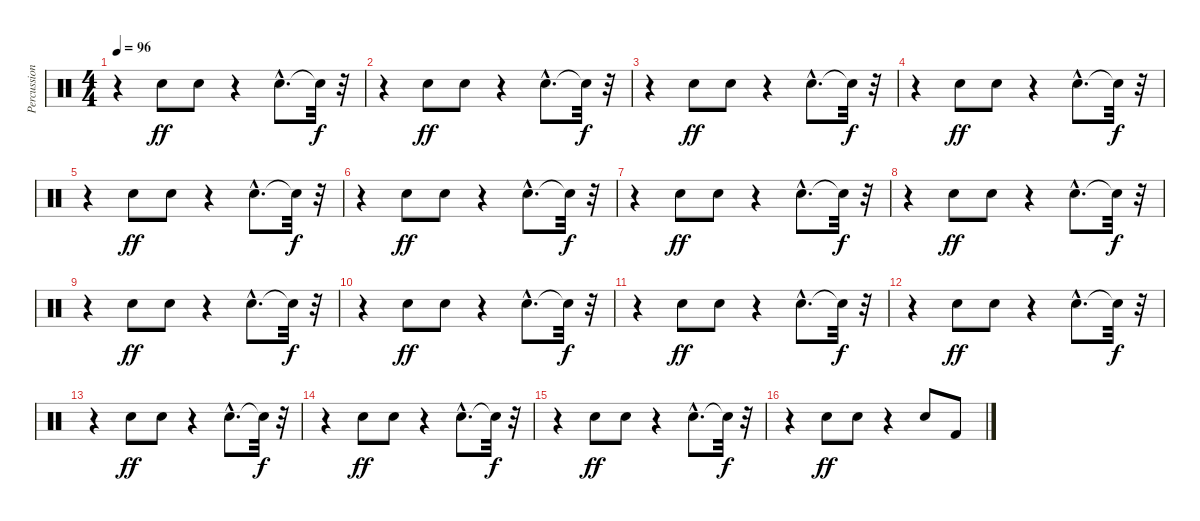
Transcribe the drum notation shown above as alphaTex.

\track ("Percussion 1" "Percussion") {instrument percussion}
\staff {score}
\articulation defaults
\ts (4 4)
\tempo 96
\clef neutral
\ks c
r.4{dy ff} "Electric Snare (hit)".8 "Electric Snare (hit)".8 r.4 "Electric Snare (hit)"{hac}.8{d} "Snare (hit)"{t}.32{dy f} r.32 |
r.4 "Electric Snare (hit)".8{dy ff} "Electric Snare (hit)".8 r.4 "Electric Snare (hit)"{hac}.8{d} "Snare (hit)"{t}.32{dy f} r.32 |
r.4 "Electric Snare (hit)".8{dy ff} "Electric Snare (hit)".8 r.4 "Electric Snare (hit)"{hac}.8{d} "Snare (hit)"{t}.32{dy f} r.32 |
r.4 "Electric Snare (hit)".8{dy ff} "Electric Snare (hit)".8 r.4 "Electric Snare (hit)"{hac}.8{d} "Snare (hit)"{t}.32{dy f} r.32 |
r.4 "Electric Snare (hit)".8{dy ff} "Electric Snare (hit)".8 r.4 "Electric Snare (hit)"{hac}.8{d} "Snare (hit)"{t}.32{dy f} r.32 |
r.4 "Electric Snare (hit)".8{dy ff} "Electric Snare (hit)".8 r.4 "Electric Snare (hit)"{hac}.8{d} "Snare (hit)"{t}.32{dy f} r.32 |
r.4 "Electric Snare (hit)".8{dy ff} "Electric Snare (hit)".8 r.4 "Electric Snare (hit)"{hac}.8{d} "Snare (hit)"{t}.32{dy f} r.32 |
r.4 "Electric Snare (hit)".8{dy ff} "Electric Snare (hit)".8 r.4 "Electric Snare (hit)"{hac}.8{d} "Snare (hit)"{t}.32{dy f} r.32 |
r.4 "Electric Snare (hit)".8{dy ff} "Electric Snare (hit)".8 r.4 "Electric Snare (hit)"{hac}.8{d} "Snare (hit)"{t}.32{dy f} r.32 |
r.4 "Electric Snare (hit)".8{dy ff} "Electric Snare (hit)".8 r.4 "Electric Snare (hit)"{hac}.8{d} "Snare (hit)"{t}.32{dy f} r.32 |
r.4 "Electric Snare (hit)".8{dy ff} "Electric Snare (hit)".8 r.4 "Electric Snare (hit)"{hac}.8{d} "Snare (hit)"{t}.32{dy f} r.32 |
r.4 "Electric Snare (hit)".8{dy ff} "Electric Snare (hit)".8 r.4 "Electric Snare (hit)"{hac}.8{d} "Snare (hit)"{t}.32{dy f} r.32 |
r.4 "Electric Snare (hit)".8{dy ff} "Electric Snare (hit)".8 r.4 "Electric Snare (hit)"{hac}.8{d} "Snare (hit)"{t}.32{dy f} r.32 |
r.4 "Electric Snare (hit)".8{dy ff} "Electric Snare (hit)".8 r.4 "Electric Snare (hit)"{hac}.8{d} "Snare (hit)"{t}.32{dy f} r.32 |
r.4 "Electric Snare (hit)".8{dy ff} "Electric Snare (hit)".8 r.4 "Electric Snare (hit)"{hac}.8{d} "Snare (hit)"{t}.32{dy f} r.32 |
r.4 "Electric Snare (hit)".8{dy ff} "Electric Snare (hit)".8 r.4 "Electric Snare (hit)".8 "Kick (hit) 2".8
